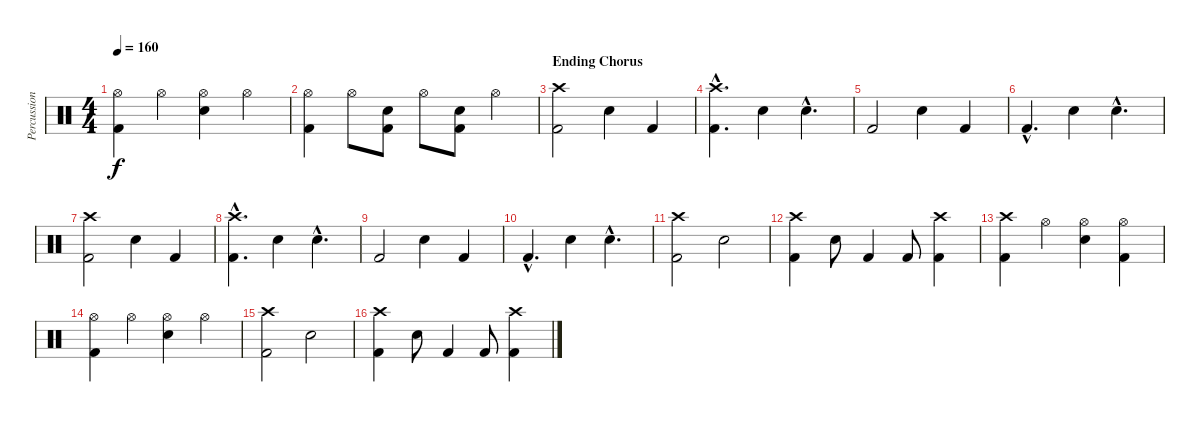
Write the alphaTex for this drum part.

\track ("Percussion" "Percussion") {instrument percussion}
\staff {score}
\articulation defaults
\ts (4 4)
\tempo 160
\clef neutral
\ks c
("Hi-Hat (open)" "Kick (hit) 2").4{dy f} "Hi-Hat (open)".4 ("Hi-Hat (open)" "Electric Snare (hit)").4 "Hi-Hat (open)".4 |
("Hi-Hat (open)" "Kick (hit) 2").4 "Hi-Hat (open)".8 ("Electric Snare (hit)" "Kick (hit) 2").8 "Hi-Hat (open)".8 ("Electric Snare (hit)" "Kick (hit) 2").8 "Hi-Hat (open)".4 |
\section ("" "Ending Chorus")
("Crash high (hit)" "Kick (hit) 2").2 "Electric Snare (hit)".4 "Kick (hit) 2".4 |
("Crash high (hit)"{hac} "Kick (hit) 2"{hac}).4{d} "Electric Snare (hit)".4 "Electric Snare (hit)"{hac}.4{d} |
"Kick (hit) 2".2 "Electric Snare (hit)".4 "Kick (hit) 2".4 |
"Kick (hit) 2"{hac}.4{d} "Electric Snare (hit)".4 "Electric Snare (hit)"{hac}.4{d} |
("Crash high (hit)" "Kick (hit) 2").2 "Electric Snare (hit)".4 "Kick (hit) 2".4 |
("Crash high (hit)"{hac} "Kick (hit) 2"{hac}).4{d} "Electric Snare (hit)".4 "Electric Snare (hit)"{hac}.4{d} |
"Kick (hit) 2".2 "Electric Snare (hit)".4 "Kick (hit) 2".4 |
"Kick (hit) 2"{hac}.4{d} "Electric Snare (hit)".4 "Electric Snare (hit)"{hac}.4{d} |
("Crash high (hit)" "Kick (hit) 2").2 "Electric Snare (hit)".2 |
("Crash high (hit)" "Kick (hit) 2").4 "Electric Snare (hit)".8 "Kick (hit) 2".4 "Kick (hit) 2".8 ("Crash high (hit)" "Kick (hit) 2").4 |
("Crash high (hit)" "Kick (hit) 2").4 "Hi-Hat (open)".4 ("Hi-Hat (open)" "Electric Snare (hit)").4 ("Hi-Hat (open)" "Kick (hit) 2").4 |
("Hi-Hat (open)" "Kick (hit) 2").4 "Hi-Hat (open)".4 ("Hi-Hat (open)" "Electric Snare (hit)").4 "Hi-Hat (open)".4 |
("Crash high (hit)" "Kick (hit) 2").2 "Electric Snare (hit)".2 |
("Crash high (hit)" "Kick (hit) 2").4 "Electric Snare (hit)".8 "Kick (hit) 2".4 "Kick (hit) 2".8 ("Crash high (hit)" "Kick (hit) 2").4
